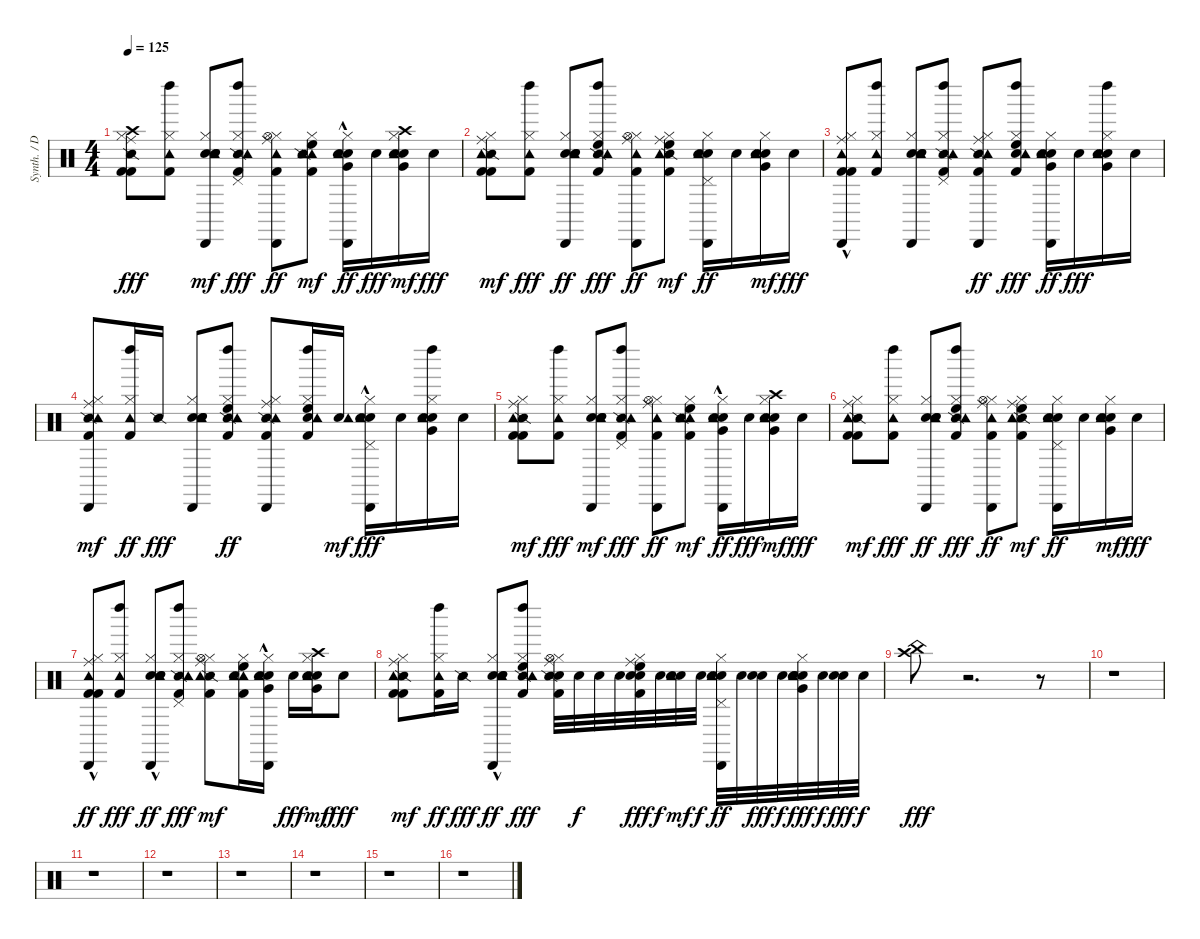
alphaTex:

\track ("Synth. / Drums" "Synth. / D") {instrument percussion}
\staff {score}
\articulation defaults
\ts (4 4)
\tempo 125
\clef neutral
\ks c
("Kick (hit) 2" "Kick (hit) 2" "Hi-Hat (closed)" "Snare (side stick) 2" "Crash high (hit)" "Ride (middle)").8{dy fff} ("Kick (hit) 2" "Hi-Hat (closed)" "Tambourine (hit)" "Left Maraca (hit)").8 ("Electric Snare (hit)" "Snare (hit) 2" "Hi-Hat (closed)" "Metronome (bell)" "Tambourine (hit)" "Cabasa (hit)").8{dy mf} ("Kick (hit) 2" "Hi-Hat (closed)" "Pedal Hi-Hat (hit)" "Snare (side stick) 2" "Tambourine (hit)" "Left Maraca (hit)").8{dy fff} ("Kick (hit) 2" "Hi-Hat (closed)" "Hi-Hat (open)" "Ride (middle)" "Tambourine (hit)" "Cabasa (hit)").8{dy ff} ("Kick (hit) 2" "Hi-Hat (closed)" "High Floor Tom (hit)" "Tambourine (hit)" "Snare (side stick) 2" "Tambourine (hit)").8{dy mf} ("Electric Snare (hit)"{hac} "Hi-Hat (closed)" "Very Low Tom (hit)" "Metronome (bell)" "Tambourine (hit)" "Cabasa (hit)"{hac}).16{dy ff} "Metronome (bell)".16{dy fff} ("Electric Snare (hit)" "Hi-Hat (closed)" "Very Low Tom (hit)" "Crash high (hit)" "Metronome (bell)" "Tambourine (hit)").16{dy mf} "Metronome (bell)".16{dy fff} |
("Kick (hit) 2" "Kick (hit) 2" "Hi-Hat (closed)" "Snare (side stick) 2" "Ride (middle)" "Tambourine (hit)").8{dy mf} ("Kick (hit) 2" "Hi-Hat (closed)" "Tambourine (hit)" "Left Maraca (hit)").8{dy fff} ("Electric Snare (hit)" "Snare (hit) 2" "Hi-Hat (closed)" "Metronome (bell)" "Tambourine (hit)" "Cabasa (hit)").8{dy ff} ("Kick (hit) 2" "Hi-Hat (closed)" "High Floor Tom (hit)" "Snare (side stick) 2" "Tambourine (hit)" "Left Maraca (hit)").8{dy fff} ("Kick (hit) 2" "Hi-Hat (closed)" "Hi-Hat (open)" "Ride (middle)" "Tambourine (hit)" "Cabasa (hit)").8{dy ff} ("Kick (hit) 2" "Hi-Hat (closed)" "High Floor Tom (hit)" "Ride (middle)" "Snare (side stick) 2" "Tambourine (hit)").8{dy mf} ("Electric Snare (hit)" "Hi-Hat (closed)" "Pedal Hi-Hat (hit)" "Metronome (bell)" "Tambourine (hit)" "Cabasa (hit)").16{dy ff} "Metronome (bell)".16 ("Electric Snare (hit)" "Hi-Hat (closed)" "Very Low Tom (hit)" "Tambourine (hit)" "Metronome (bell)" "Tambourine (hit)").16{dy mf} "Metronome (bell)".16{dy fff} |
("Kick (hit) 2" "Hi-Hat (closed)" "Ride (middle)" "Tambourine (hit)" "Cabasa (hit)" "Kick (hit) 2"{hac}).8 ("Kick (hit) 2" "Hi-Hat (closed)" "Tambourine (hit)" "Left Maraca (hit)").8 ("Electric Snare (hit)" "Hi-Hat (closed)" "Metronome (bell)" "Tambourine (hit)" "Cabasa (hit)" "Snare (hit) 2").8 ("Kick (hit) 2" "Hi-Hat (closed)" "Snare (side stick) 2" "Tambourine (hit)" "Left Maraca (hit)" "Pedal Hi-Hat (hit)").8 ("Kick (hit) 2" "Hi-Hat (closed)" "Snare (side stick) 2" "Ride (middle)" "Tambourine (hit)" "Cabasa (hit)").8{dy ff} ("Kick (hit) 2" "Hi-Hat (closed)" "High Floor Tom (hit)" "Metronome (bell)" "Tambourine (hit)" "Left Maraca (hit)").8{dy fff} ("Electric Snare (hit)" "Hi-Hat (closed)" "Metronome (bell)" "Tambourine (hit)" "Cabasa (hit)" "Very Low Tom (hit)").16{dy ff} "Metronome (bell)".16{dy fff} ("Hi-Hat (closed)" "Very Low Tom (hit)" "Metronome (bell)" "Tambourine (hit)" "Left Maraca (hit)" "Electric Snare (hit)").16 "Metronome (bell)".16 |
("Kick (hit) 2" "Hi-Hat (closed)" "Snare (side stick) 2" "Ride (middle)" "Tambourine (hit)" "Cabasa (hit)").8{dy mf} ("Kick (hit) 2" "Hi-Hat (closed)" "Tambourine (hit)" "Left Maraca (hit)").16{dy ff} "Snare (side stick) 2".16{dy fff} ("Electric Snare (hit)" "Hi-Hat (closed)" "Metronome (bell)" "Tambourine (hit)" "Cabasa (hit)" "Snare (hit) 2").8 ("Kick (hit) 2" "Hi-Hat (closed)" "Snare (side stick) 2" "Tambourine (hit)" "Left Maraca (hit)" "High Floor Tom (hit)").8{dy ff} ("Kick (hit) 2" "Hi-Hat (closed)" "Snare (side stick) 2" "Ride (middle)" "Tambourine (hit)" "Cabasa (hit)").8 ("Kick (hit) 2" "Hi-Hat (closed)" "High Floor Tom (hit)" "Metronome (bell)" "Tambourine (hit)" "Left Maraca (hit)").16 ("Metronome (bell)" "Tambourine (hit)").16{dy mf} ("Electric Snare (hit)" "Hi-Hat (closed)" "Metronome (bell)" "Tambourine (hit)" "Cabasa (hit)"{hac} "Pedal Hi-Hat (hit)").16{dy fff} "Metronome (bell)".16 ("Electric Snare (hit)" "Hi-Hat (closed)" "Very Low Tom (hit)" "Metronome (bell)" "Tambourine (hit)" "Left Maraca (hit)").16 "Metronome (bell)".16 |
("Kick (hit) 2" "Kick (hit) 2" "Hi-Hat (closed)" "Snare (side stick) 2" "Ride (middle)" "Tambourine (hit)").8{dy mf} ("Kick (hit) 2" "Hi-Hat (closed)" "Tambourine (hit)" "Left Maraca (hit)").8{dy fff} ("Electric Snare (hit)" "Snare (hit) 2" "Hi-Hat (closed)" "Metronome (bell)" "Tambourine (hit)" "Cabasa (hit)").8{dy mf} ("Kick (hit) 2" "Hi-Hat (closed)" "Pedal Hi-Hat (hit)" "Snare (side stick) 2" "Tambourine (hit)" "Left Maraca (hit)").8{dy fff} ("Kick (hit) 2" "Hi-Hat (closed)" "Hi-Hat (open)" "Ride (middle)" "Tambourine (hit)" "Cabasa (hit)").8{dy ff} ("Kick (hit) 2" "Hi-Hat (closed)" "High Floor Tom (hit)" "Tambourine (hit)" "Snare (side stick) 2" "Tambourine (hit)").8{dy mf} ("Electric Snare (hit)"{hac} "Hi-Hat (closed)" "Very Low Tom (hit)" "Metronome (bell)" "Tambourine (hit)" "Cabasa (hit)"{hac}).16{dy ff} "Metronome (bell)".16{dy fff} ("Electric Snare (hit)" "Hi-Hat (closed)" "Very Low Tom (hit)" "Crash high (hit)" "Metronome (bell)" "Tambourine (hit)").16{dy mf} "Metronome (bell)".16{dy fff} |
("Kick (hit) 2" "Kick (hit) 2" "Hi-Hat (closed)" "Snare (side stick) 2" "Ride (middle)" "Tambourine (hit)").8{dy mf} ("Kick (hit) 2" "Hi-Hat (closed)" "Tambourine (hit)" "Left Maraca (hit)").8{dy fff} ("Electric Snare (hit)" "Snare (hit) 2" "Hi-Hat (closed)" "Metronome (bell)" "Tambourine (hit)" "Cabasa (hit)").8{dy ff} ("Kick (hit) 2" "Hi-Hat (closed)" "High Floor Tom (hit)" "Snare (side stick) 2" "Tambourine (hit)" "Left Maraca (hit)").8{dy fff} ("Kick (hit) 2" "Hi-Hat (closed)" "Hi-Hat (open)" "Ride (middle)" "Tambourine (hit)" "Cabasa (hit)").8{dy ff} ("Kick (hit) 2" "Hi-Hat (closed)" "High Floor Tom (hit)" "Ride (middle)" "Snare (side stick) 2" "Tambourine (hit)").8{dy mf} ("Electric Snare (hit)" "Hi-Hat (closed)" "Pedal Hi-Hat (hit)" "Metronome (bell)" "Tambourine (hit)" "Cabasa (hit)").16{dy ff} "Metronome (bell)".16 ("Electric Snare (hit)" "Hi-Hat (closed)" "Very Low Tom (hit)" "Tambourine (hit)" "Metronome (bell)" "Tambourine (hit)").16{dy mf} "Metronome (bell)".16{dy fff} |
("Kick (hit) 2"{hac} "Kick (hit) 2"{hac} "Hi-Hat (closed)" "Ride (middle)" "Tambourine (hit)" "Cabasa (hit)").8{dy ff} ("Kick (hit) 2" "Hi-Hat (closed)" "Tambourine (hit)" "Left Maraca (hit)").8{dy fff} ("Electric Snare (hit)" "Snare (hit) 2" "Hi-Hat (closed)" "Metronome (bell)" "Tambourine (hit)" "Cabasa (hit)"{hac}).8{dy ff} ("Kick (hit) 2" "Hi-Hat (closed)" "Pedal Hi-Hat (hit)" "Snare (side stick) 2" "Tambourine (hit)" "Left Maraca (hit)").8{dy fff} ("Kick (hit) 2" "Hi-Hat (closed)" "Hi-Hat (open)" "Snare (side stick) 2" "Ride (middle)" "Tambourine (hit)").8{dy mf} ("Kick (hit) 2" "Hi-Hat (closed)" "High Floor Tom (hit)" "Tambourine (hit)" "Metronome (bell)" "Tambourine (hit)").16 ("Electric Snare (hit)" "Hi-Hat (closed)" "Very Low Tom (hit)" "Metronome (bell)" "Tambourine (hit)" "Cabasa (hit)"{hac}).16 "Metronome (bell)".16{dy fff} ("Electric Snare (hit)" "Hi-Hat (closed)" "Very Low Tom (hit)" "Crash high (hit)" "Metronome (bell)" "Tambourine (hit)").16{dy mf} "Metronome (bell)".8{dy fff} |
("Kick (hit) 2" "Kick (hit) 2" "Hi-Hat (closed)" "Snare (side stick) 2" "Ride (middle)" "Tambourine (hit)").8{dy mf} ("Kick (hit) 2" "Hi-Hat (closed)" "Tambourine (hit)" "Left Maraca (hit)").16{dy ff} "Snare (side stick) 2".16{dy fff} ("Electric Snare (hit)" "Snare (hit) 2" "Hi-Hat (closed)" "Metronome (bell)" "Tambourine (hit)" "Cabasa (hit)"{hac}).8{dy ff} ("Kick (hit) 2" "Hi-Hat (closed)" "High Floor Tom (hit)" "Snare (side stick) 2" "Tambourine (hit)" "Left Maraca (hit)").8{dy fff} ("Kick (hit) 2" "Electric Snare (hit)" "Hi-Hat (closed)" "Hi-Hat (open)" "Snare (side stick) 2" "Ride (middle)").32 "Electric Snare (hit)".32{dy f} "Electric Snare (hit)".32 "Electric Snare (hit)".32 ("Kick (hit) 2" "Electric Snare (hit)" "Hi-Hat (closed)" "High Floor Tom (hit)" "Ride (middle)" "Metronome (bell)").32{dy fff} "Electric Snare (hit)".32{dy f} ("Electric Snare (hit)" "Metronome (bell)" "Tambourine (hit)").32{dy mf} "Electric Snare (hit)".32{dy f} ("Electric Snare (hit)" "Hi-Hat (closed)" "Pedal Hi-Hat (hit)" "Metronome (bell)" "Tambourine (hit)" "Cabasa (hit)").32{dy ff} "Electric Snare (hit)".32 ("Electric Snare (hit)" "Metronome (bell)").32{dy fff} "Electric Snare (hit)".32{dy f} ("Electric Snare (hit)" "Electric Snare (hit)" "Hi-Hat (closed)" "Very Low Tom (hit)" "Tambourine (hit)" "Metronome (bell)").32{dy fff} "Electric Snare (hit)".32{dy f} ("Electric Snare (hit)" "Metronome (bell)").32{dy fff} "Electric Snare (hit)".32{dy f} |
("Crash high (hit)" "China (hit)").8{dy fff} r.2{d} r.8 |
r.1 |
r.1 |
r.1 |
r.1 |
r.1 |
r.1 |
r.1
